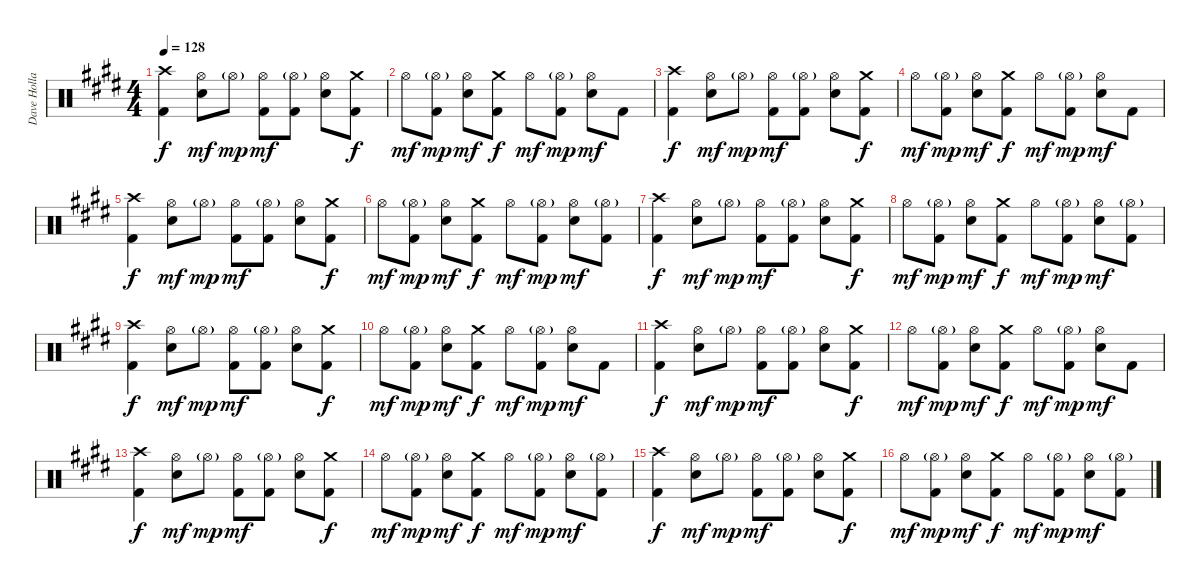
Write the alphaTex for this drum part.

\track ("Dave Holland" "Dave Holla") {instrument percussion}
\staff {score}
\articulation defaults
\ts (4 4)
\tempo 128
\clef neutral
\ks e
("Crash high (hit)" "Kick (hit) 2").4{dy f} ("Hi-Hat (open)" "Electric Snare (hit)").8{dy mf} "Hi-Hat (open)"{g}.8{dy mp} ("Hi-Hat (open)" "Kick (hit) 2").8{dy mf} ("Hi-Hat (open)"{g} "Kick (hit) 2").8 ("Hi-Hat (open)" "Electric Snare (hit)").8 ("Crash medium (hit)" "Kick (hit) 2").8{dy f} |
"Hi-Hat (open)".8{dy mf} ("Hi-Hat (open)"{g} "Kick (hit) 2").8{dy mp} ("Hi-Hat (open)" "Electric Snare (hit)").8{dy mf} ("Crash medium (hit)" "Kick (hit) 2").8{dy f} "Hi-Hat (open)".8{dy mf} ("Hi-Hat (open)"{g} "Kick (hit) 2").8{dy mp} ("Hi-Hat (open)" "Electric Snare (hit)").8{dy mf} "Kick (hit) 2".8 |
("Crash high (hit)" "Kick (hit) 2").4{dy f} ("Hi-Hat (open)" "Electric Snare (hit)").8{dy mf} "Hi-Hat (open)"{g}.8{dy mp} ("Hi-Hat (open)" "Kick (hit) 2").8{dy mf} ("Hi-Hat (open)"{g} "Kick (hit) 2").8 ("Hi-Hat (open)" "Electric Snare (hit)").8 ("Crash medium (hit)" "Kick (hit) 2").8{dy f} |
"Hi-Hat (open)".8{dy mf} ("Hi-Hat (open)"{g} "Kick (hit) 2").8{dy mp} ("Hi-Hat (open)" "Electric Snare (hit)").8{dy mf} ("Crash medium (hit)" "Kick (hit) 2").8{dy f} "Hi-Hat (open)".8{dy mf} ("Hi-Hat (open)"{g} "Kick (hit) 2").8{dy mp} ("Hi-Hat (open)" "Electric Snare (hit)").8{dy mf} "Kick (hit) 2".8 |
("Crash high (hit)" "Kick (hit) 2").4{dy f} ("Hi-Hat (open)" "Electric Snare (hit)").8{dy mf} "Hi-Hat (open)"{g}.8{dy mp} ("Hi-Hat (open)" "Kick (hit) 2").8{dy mf} ("Hi-Hat (open)"{g} "Kick (hit) 2").8 ("Hi-Hat (open)" "Electric Snare (hit)").8 ("Crash medium (hit)" "Kick (hit) 2").8{dy f} |
"Hi-Hat (open)".8{dy mf} ("Hi-Hat (open)"{g} "Kick (hit) 2").8{dy mp} ("Hi-Hat (open)" "Electric Snare (hit)").8{dy mf} ("Crash medium (hit)" "Kick (hit) 2").8{dy f} "Hi-Hat (open)".8{dy mf} ("Hi-Hat (open)"{g} "Kick (hit) 2").8{dy mp} ("Hi-Hat (open)" "Electric Snare (hit)").8{dy mf} ("Hi-Hat (open)"{g} "Kick (hit) 2").8 |
("Crash high (hit)" "Kick (hit) 2").4{dy f} ("Hi-Hat (open)" "Electric Snare (hit)").8{dy mf} "Hi-Hat (open)"{g}.8{dy mp} ("Hi-Hat (open)" "Kick (hit) 2").8{dy mf} ("Hi-Hat (open)"{g} "Kick (hit) 2").8 ("Hi-Hat (open)" "Electric Snare (hit)").8 ("Crash medium (hit)" "Kick (hit) 2").8{dy f} |
"Hi-Hat (open)".8{dy mf} ("Hi-Hat (open)"{g} "Kick (hit) 2").8{dy mp} ("Hi-Hat (open)" "Electric Snare (hit)").8{dy mf} ("Crash medium (hit)" "Kick (hit) 2").8{dy f} "Hi-Hat (open)".8{dy mf} ("Hi-Hat (open)"{g} "Kick (hit) 2").8{dy mp} ("Hi-Hat (open)" "Electric Snare (hit)").8{dy mf} ("Hi-Hat (open)"{g} "Kick (hit) 2").8 |
("Crash high (hit)" "Kick (hit) 2").4{dy f} ("Hi-Hat (open)" "Electric Snare (hit)").8{dy mf} "Hi-Hat (open)"{g}.8{dy mp} ("Hi-Hat (open)" "Kick (hit) 2").8{dy mf} ("Hi-Hat (open)"{g} "Kick (hit) 2").8 ("Hi-Hat (open)" "Electric Snare (hit)").8 ("Crash medium (hit)" "Kick (hit) 2").8{dy f} |
"Hi-Hat (open)".8{dy mf} ("Hi-Hat (open)"{g} "Kick (hit) 2").8{dy mp} ("Hi-Hat (open)" "Electric Snare (hit)").8{dy mf} ("Crash medium (hit)" "Kick (hit) 2").8{dy f} "Hi-Hat (open)".8{dy mf} ("Hi-Hat (open)"{g} "Kick (hit) 2").8{dy mp} ("Hi-Hat (open)" "Electric Snare (hit)").8{dy mf} "Kick (hit) 2".8 |
("Crash high (hit)" "Kick (hit) 2").4{dy f} ("Hi-Hat (open)" "Electric Snare (hit)").8{dy mf} "Hi-Hat (open)"{g}.8{dy mp} ("Hi-Hat (open)" "Kick (hit) 2").8{dy mf} ("Hi-Hat (open)"{g} "Kick (hit) 2").8 ("Hi-Hat (open)" "Electric Snare (hit)").8 ("Crash medium (hit)" "Kick (hit) 2").8{dy f} |
"Hi-Hat (open)".8{dy mf} ("Hi-Hat (open)"{g} "Kick (hit) 2").8{dy mp} ("Hi-Hat (open)" "Electric Snare (hit)").8{dy mf} ("Crash medium (hit)" "Kick (hit) 2").8{dy f} "Hi-Hat (open)".8{dy mf} ("Hi-Hat (open)"{g} "Kick (hit) 2").8{dy mp} ("Hi-Hat (open)" "Electric Snare (hit)").8{dy mf} "Kick (hit) 2".8 |
("Crash high (hit)" "Kick (hit) 2").4{dy f} ("Hi-Hat (open)" "Electric Snare (hit)").8{dy mf} "Hi-Hat (open)"{g}.8{dy mp} ("Hi-Hat (open)" "Kick (hit) 2").8{dy mf} ("Hi-Hat (open)"{g} "Kick (hit) 2").8 ("Hi-Hat (open)" "Electric Snare (hit)").8 ("Crash medium (hit)" "Kick (hit) 2").8{dy f} |
"Hi-Hat (open)".8{dy mf} ("Hi-Hat (open)"{g} "Kick (hit) 2").8{dy mp} ("Hi-Hat (open)" "Electric Snare (hit)").8{dy mf} ("Crash medium (hit)" "Kick (hit) 2").8{dy f} "Hi-Hat (open)".8{dy mf} ("Hi-Hat (open)"{g} "Kick (hit) 2").8{dy mp} ("Hi-Hat (open)" "Electric Snare (hit)").8{dy mf} ("Hi-Hat (open)"{g} "Kick (hit) 2").8 |
("Crash high (hit)" "Kick (hit) 2").4{dy f} ("Hi-Hat (open)" "Electric Snare (hit)").8{dy mf} "Hi-Hat (open)"{g}.8{dy mp} ("Hi-Hat (open)" "Kick (hit) 2").8{dy mf} ("Hi-Hat (open)"{g} "Kick (hit) 2").8 ("Hi-Hat (open)" "Electric Snare (hit)").8 ("Crash medium (hit)" "Kick (hit) 2").8{dy f} |
"Hi-Hat (open)".8{dy mf} ("Hi-Hat (open)"{g} "Kick (hit) 2").8{dy mp} ("Hi-Hat (open)" "Electric Snare (hit)").8{dy mf} ("Crash medium (hit)" "Kick (hit) 2").8{dy f} "Hi-Hat (open)".8{dy mf} ("Hi-Hat (open)"{g} "Kick (hit) 2").8{dy mp} ("Hi-Hat (open)" "Electric Snare (hit)").8{dy mf} ("Hi-Hat (open)"{g} "Kick (hit) 2").8
